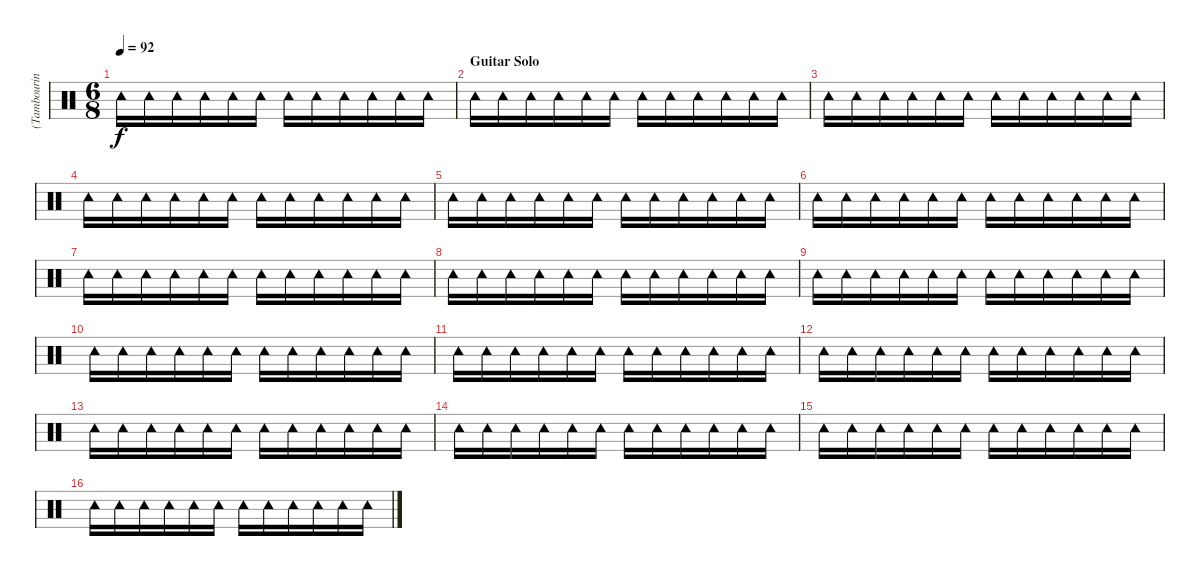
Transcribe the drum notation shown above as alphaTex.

\track ("(Tambourine)" "(Tambourin") {instrument percussion}
\staff {score}
\articulation defaults
\ts (6 8)
\tempo 92
\clef neutral
\ks c "Tambourine (hit)".16{dy f} "Tambourine (hit)".16 "Tambourine (hit)".16 "Tambourine (hit)".16 "Tambourine (hit)".16 "Tambourine (hit)".16 "Tambourine (hit)".16 "Tambourine (hit)".16 "Tambourine (hit)".16 "Tambourine (hit)".16 "Tambourine (hit)".16 "Tambourine (hit)".16
|
\section ("" "Guitar Solo")
"Tambourine (hit)".16 "Tambourine (hit)".16 "Tambourine (hit)".16 "Tambourine (hit)".16 "Tambourine (hit)".16 "Tambourine (hit)".16 "Tambourine (hit)".16 "Tambourine (hit)".16 "Tambourine (hit)".16 "Tambourine (hit)".16 "Tambourine (hit)".16 "Tambourine (hit)".16 |
"Tambourine (hit)".16 "Tambourine (hit)".16 "Tambourine (hit)".16 "Tambourine (hit)".16 "Tambourine (hit)".16 "Tambourine (hit)".16 "Tambourine (hit)".16 "Tambourine (hit)".16 "Tambourine (hit)".16 "Tambourine (hit)".16 "Tambourine (hit)".16 "Tambourine (hit)".16 |
"Tambourine (hit)".16 "Tambourine (hit)".16 "Tambourine (hit)".16 "Tambourine (hit)".16 "Tambourine (hit)".16 "Tambourine (hit)".16 "Tambourine (hit)".16 "Tambourine (hit)".16 "Tambourine (hit)".16 "Tambourine (hit)".16 "Tambourine (hit)".16 "Tambourine (hit)".16 |
"Tambourine (hit)".16 "Tambourine (hit)".16 "Tambourine (hit)".16 "Tambourine (hit)".16 "Tambourine (hit)".16 "Tambourine (hit)".16 "Tambourine (hit)".16 "Tambourine (hit)".16 "Tambourine (hit)".16 "Tambourine (hit)".16 "Tambourine (hit)".16 "Tambourine (hit)".16 |
"Tambourine (hit)".16 "Tambourine (hit)".16 "Tambourine (hit)".16 "Tambourine (hit)".16 "Tambourine (hit)".16 "Tambourine (hit)".16 "Tambourine (hit)".16 "Tambourine (hit)".16 "Tambourine (hit)".16 "Tambourine (hit)".16 "Tambourine (hit)".16 "Tambourine (hit)".16 |
"Tambourine (hit)".16 "Tambourine (hit)".16 "Tambourine (hit)".16 "Tambourine (hit)".16 "Tambourine (hit)".16 "Tambourine (hit)".16 "Tambourine (hit)".16 "Tambourine (hit)".16 "Tambourine (hit)".16 "Tambourine (hit)".16 "Tambourine (hit)".16 "Tambourine (hit)".16 |
"Tambourine (hit)".16 "Tambourine (hit)".16 "Tambourine (hit)".16 "Tambourine (hit)".16 "Tambourine (hit)".16 "Tambourine (hit)".16 "Tambourine (hit)".16 "Tambourine (hit)".16 "Tambourine (hit)".16 "Tambourine (hit)".16 "Tambourine (hit)".16 "Tambourine (hit)".16 |
"Tambourine (hit)".16 "Tambourine (hit)".16 "Tambourine (hit)".16 "Tambourine (hit)".16 "Tambourine (hit)".16 "Tambourine (hit)".16 "Tambourine (hit)".16 "Tambourine (hit)".16 "Tambourine (hit)".16 "Tambourine (hit)".16 "Tambourine (hit)".16 "Tambourine (hit)".16 |
"Tambourine (hit)".16 "Tambourine (hit)".16 "Tambourine (hit)".16 "Tambourine (hit)".16 "Tambourine (hit)".16 "Tambourine (hit)".16 "Tambourine (hit)".16 "Tambourine (hit)".16 "Tambourine (hit)".16 "Tambourine (hit)".16 "Tambourine (hit)".16 "Tambourine (hit)".16 |
"Tambourine (hit)".16 "Tambourine (hit)".16 "Tambourine (hit)".16 "Tambourine (hit)".16 "Tambourine (hit)".16 "Tambourine (hit)".16 "Tambourine (hit)".16 "Tambourine (hit)".16 "Tambourine (hit)".16 "Tambourine (hit)".16 "Tambourine (hit)".16 "Tambourine (hit)".16 |
"Tambourine (hit)".16 "Tambourine (hit)".16 "Tambourine (hit)".16 "Tambourine (hit)".16 "Tambourine (hit)".16 "Tambourine (hit)".16 "Tambourine (hit)".16 "Tambourine (hit)".16 "Tambourine (hit)".16 "Tambourine (hit)".16 "Tambourine (hit)".16 "Tambourine (hit)".16 |
"Tambourine (hit)".16 "Tambourine (hit)".16 "Tambourine (hit)".16 "Tambourine (hit)".16 "Tambourine (hit)".16 "Tambourine (hit)".16 "Tambourine (hit)".16 "Tambourine (hit)".16 "Tambourine (hit)".16 "Tambourine (hit)".16 "Tambourine (hit)".16 "Tambourine (hit)".16 |
"Tambourine (hit)".16 "Tambourine (hit)".16 "Tambourine (hit)".16 "Tambourine (hit)".16 "Tambourine (hit)".16 "Tambourine (hit)".16 "Tambourine (hit)".16 "Tambourine (hit)".16 "Tambourine (hit)".16 "Tambourine (hit)".16 "Tambourine (hit)".16 "Tambourine (hit)".16 |
"Tambourine (hit)".16 "Tambourine (hit)".16 "Tambourine (hit)".16 "Tambourine (hit)".16 "Tambourine (hit)".16 "Tambourine (hit)".16 "Tambourine (hit)".16 "Tambourine (hit)".16 "Tambourine (hit)".16 "Tambourine (hit)".16 "Tambourine (hit)".16 "Tambourine (hit)".16 |
"Tambourine (hit)".16 "Tambourine (hit)".16 "Tambourine (hit)".16 "Tambourine (hit)".16 "Tambourine (hit)".16 "Tambourine (hit)".16 "Tambourine (hit)".16 "Tambourine (hit)".16 "Tambourine (hit)".16 "Tambourine (hit)".16 "Tambourine (hit)".16 "Tambourine (hit)".16
